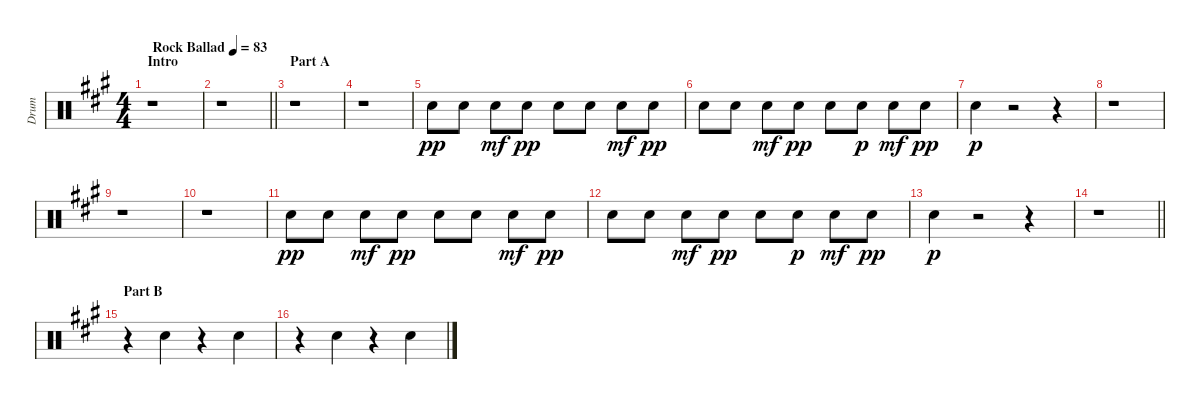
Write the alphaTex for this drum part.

\track ("Drum" "Drum") {instrument percussion}
\staff {score}
\articulation defaults
\ts (4 4)
\section ("" "Intro")
\tempo (83 "Rock Ballad")
\clef neutral
\ks a
r.1{dy pp} |
\barLineRight lightlight
r.1 |
\section ("" "Part A")
r.1 |
r.1 |
"Snare (hit) 2".8 "Snare (hit) 2".8 "Snare (hit) 2".8{dy mf} "Snare (hit) 2".8{dy pp} "Snare (hit) 2".8 "Snare (hit) 2".8 "Snare (hit) 2".8{dy mf} "Snare (hit) 2".8{dy pp} |
"Snare (hit) 2".8 "Snare (hit) 2".8 "Snare (hit) 2".8{dy mf} "Snare (hit) 2".8{dy pp} "Snare (hit) 2".8 "Snare (hit) 2".8{dy p} "Snare (hit) 2".8{dy mf} "Snare (hit) 2".8{dy pp} |
"Snare (hit) 2".4{dy p} r.2 r.4 |
r.1 |
r.1 |
r.1 |
"Snare (hit) 2".8{dy pp} "Snare (hit) 2".8 "Snare (hit) 2".8{dy mf} "Snare (hit) 2".8{dy pp} "Snare (hit) 2".8 "Snare (hit) 2".8 "Snare (hit) 2".8{dy mf} "Snare (hit) 2".8{dy pp} |
"Snare (hit) 2".8 "Snare (hit) 2".8 "Snare (hit) 2".8{dy mf} "Snare (hit) 2".8{dy pp} "Snare (hit) 2".8 "Snare (hit) 2".8{dy p} "Snare (hit) 2".8{dy mf} "Snare (hit) 2".8{dy pp} |
"Snare (hit) 2".4{dy p} r.2 r.4 |
\barLineRight lightlight
r.1 |
\section ("" "Part B")
r.4 "Electric Snare (hit)".4 r.4 "Snare (hit) 2".4 |
r.4 "Snare (hit) 2".4 r.4 "Snare (hit) 2".4
